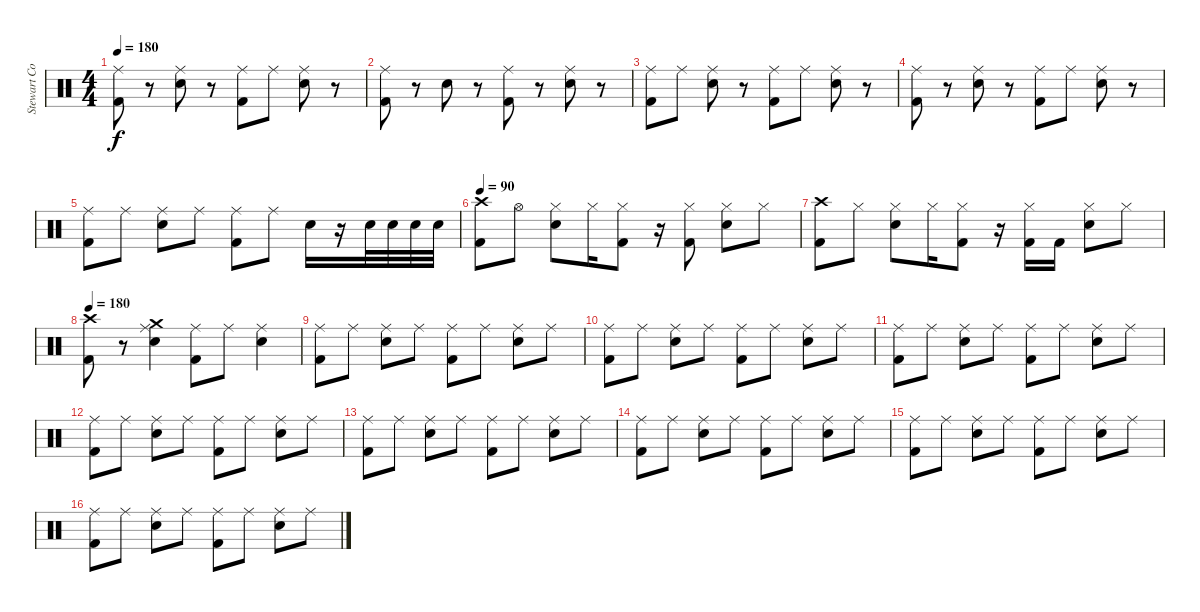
\track ("Stewart Copeland" "Stewart Co") {instrument percussion}
\staff {score}
\articulation defaults
\ts (4 4)
\tempo 180
\clef neutral
\ks c
("Ride (middle)" "Kick (hit) 2").8{dy f} r.8 ("Ride (middle)" "Electric Snare (hit)").8 r.8 ("Ride (middle)" "Kick (hit) 2").8 "Ride (middle)".8 ("Ride (middle)" "Electric Snare (hit)").8 r.8 |
("Ride (middle)" "Kick (hit) 2").8 r.8 "Electric Snare (hit)".8 r.8 ("Ride (middle)" "Kick (hit) 2").8 r.8 ("Ride (middle)" "Electric Snare (hit)").8 r.8 |
("Ride (middle)" "Kick (hit) 2").8 "Ride (middle)".8 ("Ride (middle)" "Electric Snare (hit)").8 r.8 ("Ride (middle)" "Kick (hit) 2").8 "Ride (middle)".8 ("Ride (middle)" "Electric Snare (hit)").8 r.8 |
("Ride (middle)" "Kick (hit) 2").8 r.8 ("Ride (middle)" "Electric Snare (hit)").8 r.8 ("Ride (middle)" "Kick (hit) 2").8 "Ride (middle)".8 ("Ride (middle)" "Electric Snare (hit)").8 r.8 |
("Ride (middle)" "Kick (hit) 2").8 "Ride (middle)".8 ("Ride (middle)" "Electric Snare (hit)").8 "Ride (middle)".8 ("Ride (middle)" "Kick (hit) 2").8 "Ride (middle)".8 "Electric Snare (hit)".16 r.16 "Electric Snare (hit)".32 "Electric Snare (hit)".32 "Electric Snare (hit)".32 "Electric Snare (hit)".32 |
\tempo 90
("Crash high (hit)" "Kick (hit) 2").8 "Hi-Hat (open)".8 ("Hi-Hat (closed)" "Electric Snare (hit)").8 "Hi-Hat (closed)".16 ("Hi-Hat (closed)" "Kick (hit) 2").8 r.16 ("Hi-Hat (closed)" "Kick (hit) 2").8 ("Hi-Hat (closed)" "Electric Snare (hit)").8 "Hi-Hat (closed)".8 |
("Crash high (hit)" "Kick (hit) 2").8 "Hi-Hat (closed)".8 ("Hi-Hat (closed)" "Electric Snare (hit)").8 "Hi-Hat (closed)".16 ("Hi-Hat (closed)" "Kick (hit) 2").8 r.16 ("Hi-Hat (closed)" "Kick (hit) 2").16 "Kick (hit) 2".16 ("Hi-Hat (closed)" "Electric Snare (hit)").8 "Hi-Hat (closed)".8 |
\tempo 180
("Crash high (hit)" "Kick (hit) 2").8 r.8 ("Crash medium (hit)" "Ride (middle)" "Electric Snare (hit)").4 ("Ride (middle)" "Kick (hit) 2").8 "Ride (middle)".8 ("Ride (middle)" "Electric Snare (hit)").4 |
("Ride (middle)" "Kick (hit) 2").8 "Ride (middle)".8 ("Ride (middle)" "Electric Snare (hit)").8 "Ride (middle)".8 ("Ride (middle)" "Kick (hit) 2").8 "Ride (middle)".8 ("Ride (middle)" "Electric Snare (hit)").8 "Ride (middle)".8 |
("Ride (middle)" "Kick (hit) 2").8 "Ride (middle)".8 ("Ride (middle)" "Electric Snare (hit)").8 "Ride (middle)".8 ("Ride (middle)" "Kick (hit) 2").8 "Ride (middle)".8 ("Ride (middle)" "Electric Snare (hit)").8 "Ride (middle)".8 |
("Ride (middle)" "Kick (hit) 2").8 "Ride (middle)".8 ("Ride (middle)" "Electric Snare (hit)").8 "Ride (middle)".8 ("Ride (middle)" "Kick (hit) 2").8 "Ride (middle)".8 ("Ride (middle)" "Electric Snare (hit)").8 "Ride (middle)".8 |
("Ride (middle)" "Kick (hit) 2").8 "Ride (middle)".8 ("Ride (middle)" "Electric Snare (hit)").8 "Ride (middle)".8 ("Ride (middle)" "Kick (hit) 2").8 "Ride (middle)".8 ("Ride (middle)" "Electric Snare (hit)").8 "Ride (middle)".8 |
("Ride (middle)" "Kick (hit) 2").8 "Ride (middle)".8 ("Ride (middle)" "Electric Snare (hit)").8 "Ride (middle)".8 ("Ride (middle)" "Kick (hit) 2").8 "Ride (middle)".8 ("Ride (middle)" "Electric Snare (hit)").8 "Ride (middle)".8 |
("Ride (middle)" "Kick (hit) 2").8 "Ride (middle)".8 ("Ride (middle)" "Electric Snare (hit)").8 "Ride (middle)".8 ("Ride (middle)" "Kick (hit) 2").8 "Ride (middle)".8 ("Ride (middle)" "Electric Snare (hit)").8 "Ride (middle)".8 |
("Ride (middle)" "Kick (hit) 2").8 "Ride (middle)".8 ("Ride (middle)" "Electric Snare (hit)").8 "Ride (middle)".8 ("Ride (middle)" "Kick (hit) 2").8 "Ride (middle)".8 ("Ride (middle)" "Electric Snare (hit)").8 "Ride (middle)".8 |
("Ride (middle)" "Kick (hit) 2").8 "Ride (middle)".8 ("Ride (middle)" "Electric Snare (hit)").8 "Ride (middle)".8 ("Ride (middle)" "Kick (hit) 2").8 "Ride (middle)".8 ("Ride (middle)" "Electric Snare (hit)").8 "Ride (middle)".8
